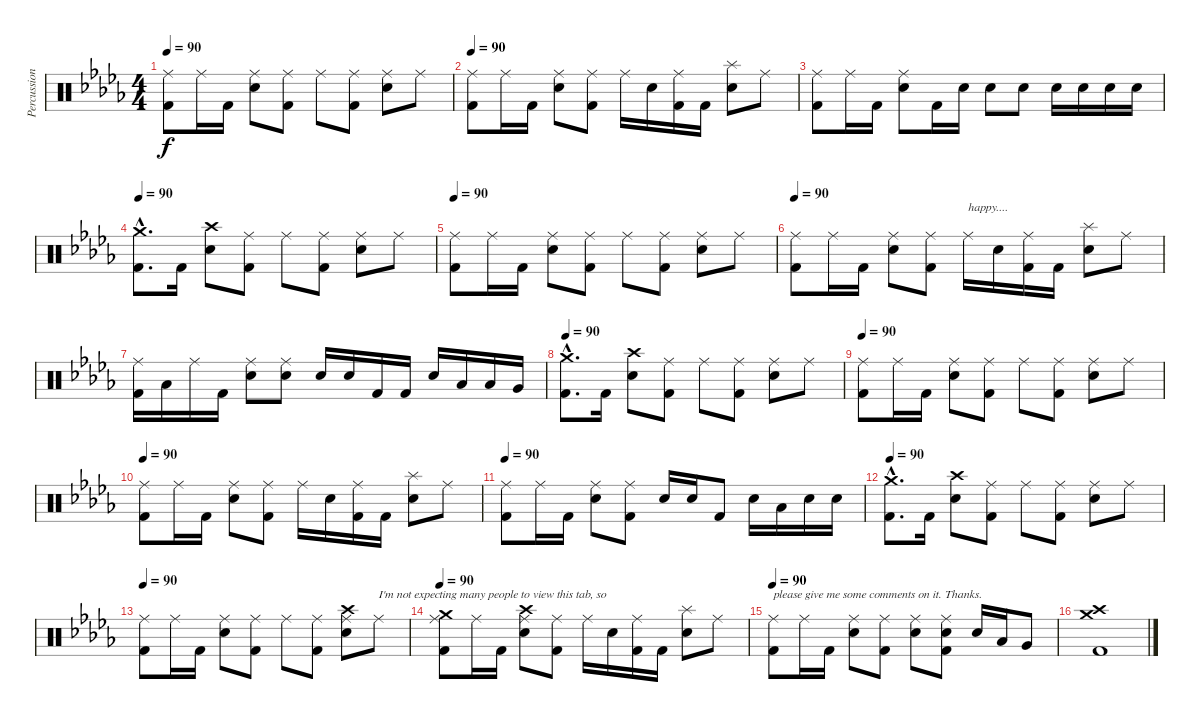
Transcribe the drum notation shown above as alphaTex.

\track ("Percussion" "Percussion") {instrument percussion}
\staff {score}
\articulation defaults
\ts (4 4)
\tempo 90
\clef neutral
\ks db
("Ride (middle)" "Kick (hit) 2").8{dy f} "Ride (middle)".16 "Kick (hit) 2".16 ("Ride (middle)" "Electric Snare (hit)").8 ("Ride (middle)" "Kick (hit) 2").8 "Ride (middle)".8 ("Ride (middle)" "Kick (hit) 2").8 ("Ride (middle)" "Electric Snare (hit)").8 "Ride (middle)".8 |
\tempo 90
("Ride (middle)" "Kick (hit) 2").8 "Ride (middle)".16 "Kick (hit) 2".16 ("Ride (middle)" "Electric Snare (hit)").8 ("Ride (middle)" "Kick (hit) 2").8 "Ride (middle)".16 "Electric Snare (hit)".16 ("Ride (middle)" "Kick (hit) 2").16 "Kick (hit) 2".16 ("Splash (hit)" "Electric Snare (hit)").8 "Ride (middle)".8 |
("Ride (middle)" "Kick (hit) 2").8 "Ride (middle)".16 "Kick (hit) 2".16 ("Ride (middle)" "Electric Snare (hit)").8 "Kick (hit) 2".16 "Electric Snare (hit)".16 "Electric Snare (hit)".8 "Electric Snare (hit)".8 "Electric Snare (hit)".16 "Electric Snare (hit)".16 "Electric Snare (hit)".16 "Electric Snare (hit)".16 |
\tempo 90
("Crash medium (hit)"{hac} "Kick (hit) 2"{hac}).8{d} "Kick (hit) 2".16 ("Crash high (hit)" "Electric Snare (hit)").8 ("Ride (middle)" "Kick (hit) 2").8 "Ride (middle)".8 ("Ride (middle)" "Kick (hit) 2").8 ("Ride (middle)" "Electric Snare (hit)").8 "Ride (middle)".8 |
\tempo 90
("Ride (middle)" "Kick (hit) 2").8 "Ride (middle)".16 "Kick (hit) 2".16 ("Ride (middle)" "Electric Snare (hit)").8 ("Ride (middle)" "Kick (hit) 2").8 "Ride (middle)".8 ("Ride (middle)" "Kick (hit) 2").8 ("Ride (middle)" "Electric Snare (hit)").8 "Ride (middle)".8 |
\tempo 90
("Ride (middle)" "Kick (hit) 2").8 "Ride (middle)".16 "Kick (hit) 2".16 ("Ride (middle)" "Electric Snare (hit)").8 ("Ride (middle)" "Kick (hit) 2").8 "Ride (middle)".16{txt "happy...."} "Electric Snare (hit)".16 ("Ride (middle)" "Kick (hit) 2").16 "Kick (hit) 2".16 ("Splash (hit)" "Electric Snare (hit)").8 "Ride (middle)".8 |
("Ride (middle)" "Kick (hit) 2").16 "Low Tom (hit)".16 "Ride (middle)".16 "Kick (hit) 2".16 ("Ride (middle)" "Electric Snare (hit)").8 ("Ride (middle)" "Electric Snare (hit)").8 "Electric Snare (hit)".16 "Electric Snare (hit)".16 "Kick (hit) 2".16 "Kick (hit) 2".16 "Electric Snare (hit)".16 "Low Tom (hit)".16 "Low Tom (hit)".16 "Very Low Tom (hit)".16 |
\tempo 90
("Crash medium (hit)"{hac} "Kick (hit) 2"{hac}).8{d} "Kick (hit) 2".16 ("Crash high (hit)" "Electric Snare (hit)").8 ("Ride (middle)" "Kick (hit) 2").8 "Ride (middle)".8 ("Ride (middle)" "Kick (hit) 2").8 ("Ride (middle)" "Electric Snare (hit)").8 "Ride (middle)".8 |
\tempo 90
("Ride (middle)" "Kick (hit) 2").8 "Ride (middle)".16 "Kick (hit) 2".16 ("Ride (middle)" "Electric Snare (hit)").8 ("Ride (middle)" "Kick (hit) 2").8 "Ride (middle)".8 ("Ride (middle)" "Kick (hit) 2").8 ("Ride (middle)" "Electric Snare (hit)").8 "Ride (middle)".8 |
\tempo 90
("Ride (middle)" "Kick (hit) 2").8 "Ride (middle)".16 "Kick (hit) 2".16 ("Ride (middle)" "Electric Snare (hit)").8 ("Ride (middle)" "Kick (hit) 2").8 "Ride (middle)".16 "Electric Snare (hit)".16 ("Ride (middle)" "Kick (hit) 2").16 "Kick (hit) 2".16 ("Splash (hit)" "Electric Snare (hit)").8 "Ride (middle)".8 |
\tempo 90
("Ride (middle)" "Kick (hit) 2").8 "Ride (middle)".16 "Kick (hit) 2".16 ("Ride (middle)" "Electric Snare (hit)").8 ("Ride (middle)" "Kick (hit) 2").8 "Electric Snare (hit)".16 "Electric Snare (hit)".16 "Kick (hit) 2".8 "Electric Snare (hit)".16 "Low Tom (hit)".16 "Electric Snare (hit)".16 "Electric Snare (hit)".16 |
\tempo 90
("Crash medium (hit)"{hac} "Kick (hit) 2"{hac}).8{d} "Kick (hit) 2".16 ("Crash high (hit)" "Electric Snare (hit)").8 ("Ride (middle)" "Kick (hit) 2").8 "Ride (middle)".8 ("Ride (middle)" "Kick (hit) 2").8 ("Ride (middle)" "Electric Snare (hit)").8 "Ride (middle)".8 |
\tempo 90
("Ride (middle)" "Kick (hit) 2").8 "Ride (middle)".16 "Kick (hit) 2".16 ("Ride (middle)" "Electric Snare (hit)").8 ("Ride (middle)" "Kick (hit) 2").8 "Ride (middle)".8 ("Ride (middle)" "Kick (hit) 2").8 ("Crash high (hit)" "Ride (middle)" "Electric Snare (hit)").8 "Ride (middle)".8{txt "I'm not expecting many people to view this tab, so"} |
\tempo 90
("Crash medium (hit)" "Ride (middle)" "Kick (hit) 2").8 "Ride (middle)".16 "Kick (hit) 2".16 ("Crash high (hit)" "Ride (middle)" "Electric Snare (hit)").8 ("Ride (middle)" "Kick (hit) 2").8 "Ride (middle)".16 "Electric Snare (hit)".16 ("Ride (middle)" "Kick (hit) 2").16 "Kick (hit) 2".16 ("Splash (hit)" "Electric Snare (hit)").8 "Ride (middle)".8 |
\tempo 90
("Ride (middle)" "Kick (hit) 2").8{txt "please give me some comments on it. Thanks."} "Ride (middle)".16 "Kick (hit) 2".16 ("Ride (middle)" "Electric Snare (hit)").8 ("Ride (middle)" "Kick (hit) 2").8 ("Ride (middle)" "Electric Snare (hit)").8 ("Ride (middle)" "Electric Snare (hit)" "Kick (hit) 2").8 "Electric Snare (hit)".16 "Low Tom (hit)".16 "Very Low Tom (hit)".8 |
("Crash high (hit)" "Crash medium (hit)" "Kick (hit) 2").1
